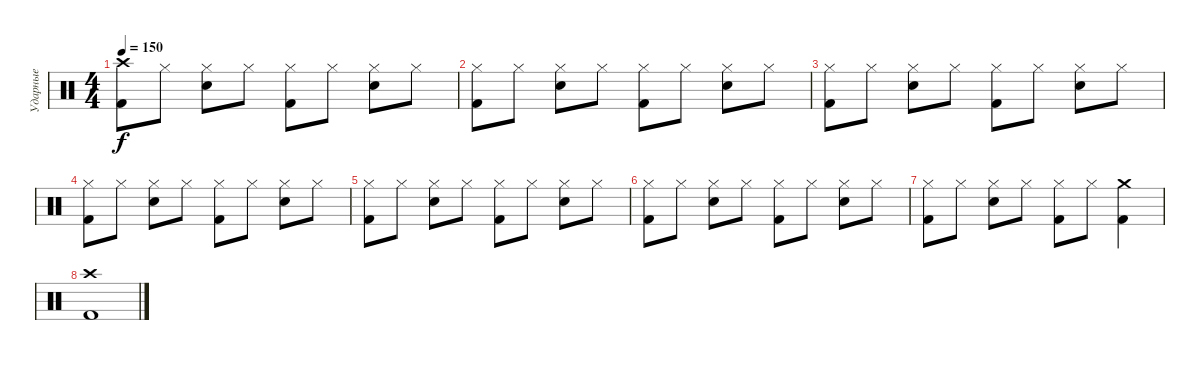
\track ("Ударные" "Ударные") {instrument percussion}
\staff {score}
\articulation defaults
\ts (4 4)
\tempo 150
\clef neutral
\ks c
("Crash high (hit)" "Kick (hit) 2").8{dy f} "Hi-Hat (closed)".8 ("Hi-Hat (closed)" "Snare (hit) 2").8 "Hi-Hat (closed)".8 ("Hi-Hat (closed)" "Kick (hit) 2").8 "Hi-Hat (closed)".8 ("Hi-Hat (closed)" "Snare (hit) 2").8 "Hi-Hat (closed)".8 |
("Hi-Hat (closed)" "Kick (hit) 2").8 "Hi-Hat (closed)".8 ("Hi-Hat (closed)" "Snare (hit) 2").8 "Hi-Hat (closed)".8 ("Hi-Hat (closed)" "Kick (hit) 2").8 "Hi-Hat (closed)".8 ("Hi-Hat (closed)" "Snare (hit) 2").8 "Hi-Hat (closed)".8 |
("Hi-Hat (closed)" "Kick (hit) 2").8 "Hi-Hat (closed)".8 ("Hi-Hat (closed)" "Snare (hit) 2").8 "Hi-Hat (closed)".8 ("Hi-Hat (closed)" "Kick (hit) 2").8 "Hi-Hat (closed)".8 ("Hi-Hat (closed)" "Snare (hit) 2").8 "Hi-Hat (closed)".8 |
("Hi-Hat (closed)" "Kick (hit) 2").8 "Hi-Hat (closed)".8 ("Hi-Hat (closed)" "Snare (hit) 2").8 "Hi-Hat (closed)".8 ("Hi-Hat (closed)" "Kick (hit) 2").8 "Hi-Hat (closed)".8 ("Hi-Hat (closed)" "Snare (hit) 2").8 "Hi-Hat (closed)".8 |
("Hi-Hat (closed)" "Kick (hit) 2").8 "Hi-Hat (closed)".8 ("Hi-Hat (closed)" "Snare (hit) 2").8 "Hi-Hat (closed)".8 ("Hi-Hat (closed)" "Kick (hit) 2").8 "Hi-Hat (closed)".8 ("Hi-Hat (closed)" "Snare (hit) 2").8 "Hi-Hat (closed)".8 |
("Hi-Hat (closed)" "Kick (hit) 2").8 "Hi-Hat (closed)".8 ("Hi-Hat (closed)" "Snare (hit) 2").8 "Hi-Hat (closed)".8 ("Hi-Hat (closed)" "Kick (hit) 2").8 "Hi-Hat (closed)".8 ("Hi-Hat (closed)" "Snare (hit) 2").8 "Hi-Hat (closed)".8 |
("Hi-Hat (closed)" "Kick (hit) 2").8 "Hi-Hat (closed)".8 ("Hi-Hat (closed)" "Snare (hit) 2").8 "Hi-Hat (closed)".8 ("Hi-Hat (closed)" "Kick (hit) 2").8 "Hi-Hat (closed)".8 ("Crash medium (hit)" "Kick (hit) 2").4 |
("Crash high (hit)" "Kick (hit) 2").1
